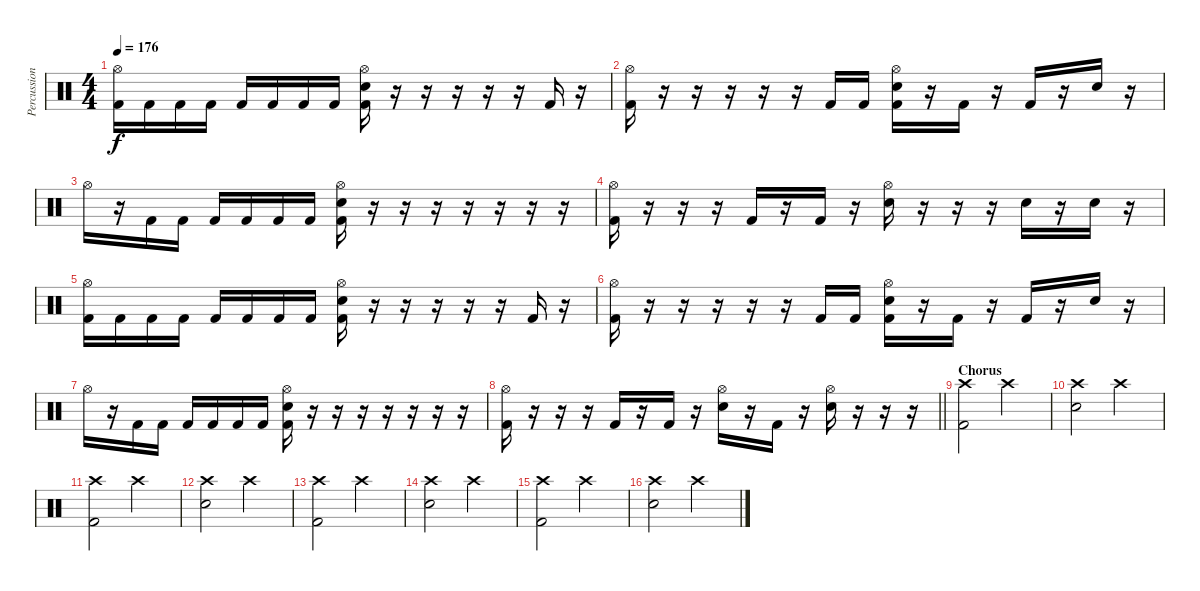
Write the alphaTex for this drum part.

\track ("Percussion" "Percussion") {instrument percussion}
\staff {score}
\articulation defaults
\ts (4 4)
\tempo 176
\clef neutral
\ks c
("Hi-Hat (open)" "Kick (hit) 2").16{dy f} "Kick (hit) 2".16 "Kick (hit) 2".16 "Kick (hit) 2".16 "Kick (hit) 2".16 "Kick (hit) 2".16 "Kick (hit) 2".16 "Kick (hit) 2".16 ("Hi-Hat (open)" "Snare (hit) 2" "Kick (hit) 2").16 r.16 r.16 r.16 r.16 r.16 "Kick (hit) 2".16 r.16 |
("Hi-Hat (open)" "Kick (hit) 2").16 r.16 r.16 r.16 r.16 r.16 "Kick (hit) 2".16 "Kick (hit) 2".16 ("Hi-Hat (open)" "Snare (hit) 2" "Kick (hit) 2").16 r.16 "Kick (hit) 2".16 r.16 "Kick (hit) 2".16 r.16 "Snare (hit) 2".16 r.16 |
"Hi-Hat (open)".16 r.16 "Kick (hit) 2".16 "Kick (hit) 2".16 "Kick (hit) 2".16 "Kick (hit) 2".16 "Kick (hit) 2".16 "Kick (hit) 2".16 ("Hi-Hat (open)" "Snare (hit) 2" "Kick (hit) 2").16 r.16 r.16 r.16 r.16 r.16 r.16 r.16 |
("Hi-Hat (open)" "Kick (hit) 2").16 r.16 r.16 r.16 "Kick (hit) 2".16 r.16 "Kick (hit) 2".16 r.16 ("Hi-Hat (open)" "Snare (hit) 2").16 r.16 r.16 r.16 "Snare (hit) 2".16 r.16 "Snare (hit) 2".16 r.16 |
("Hi-Hat (open)" "Kick (hit) 2").16 "Kick (hit) 2".16 "Kick (hit) 2".16 "Kick (hit) 2".16 "Kick (hit) 2".16 "Kick (hit) 2".16 "Kick (hit) 2".16 "Kick (hit) 2".16 ("Hi-Hat (open)" "Snare (hit) 2" "Kick (hit) 2").16 r.16 r.16 r.16 r.16 r.16 "Kick (hit) 2".16 r.16 |
("Hi-Hat (open)" "Kick (hit) 2").16 r.16 r.16 r.16 r.16 r.16 "Kick (hit) 2".16 "Kick (hit) 2".16 ("Hi-Hat (open)" "Snare (hit) 2" "Kick (hit) 2").16 r.16 "Kick (hit) 2".16 r.16 "Kick (hit) 2".16 r.16 "Snare (hit) 2".16 r.16 |
"Hi-Hat (open)".16 r.16 "Kick (hit) 2".16 "Kick (hit) 2".16 "Kick (hit) 2".16 "Kick (hit) 2".16 "Kick (hit) 2".16 "Kick (hit) 2".16 ("Hi-Hat (open)" "Snare (hit) 2" "Kick (hit) 2").16 r.16 r.16 r.16 r.16 r.16 r.16 r.16 |
\barLineRight lightlight
("Hi-Hat (open)" "Kick (hit) 2").16 r.16 r.16 r.16 "Kick (hit) 2".16 r.16 "Kick (hit) 2".16 r.16 ("Hi-Hat (open)" "Snare (hit) 2").16 r.16 "Kick (hit) 2".16 r.16 ("Hi-Hat (open)" "Snare (hit) 2").16 r.16 r.16 r.16 |
\section ("" "Chorus")
("Crash high (hit)" "Kick (hit) 2").2 "Crash high (hit)".2 |
("Crash high (hit)" "Snare (hit) 2").2 "Crash high (hit)".2 |
("Crash high (hit)" "Kick (hit) 2").2 "Crash high (hit)".2 |
("Crash high (hit)" "Snare (hit) 2").2 "Crash high (hit)".2 |
("Crash high (hit)" "Kick (hit) 2").2 "Crash high (hit)".2 |
("Crash high (hit)" "Snare (hit) 2").2 "Crash high (hit)".2 |
("Crash high (hit)" "Kick (hit) 2").2 "Crash high (hit)".2 |
("Crash high (hit)" "Snare (hit) 2").2 "Crash high (hit)".2
